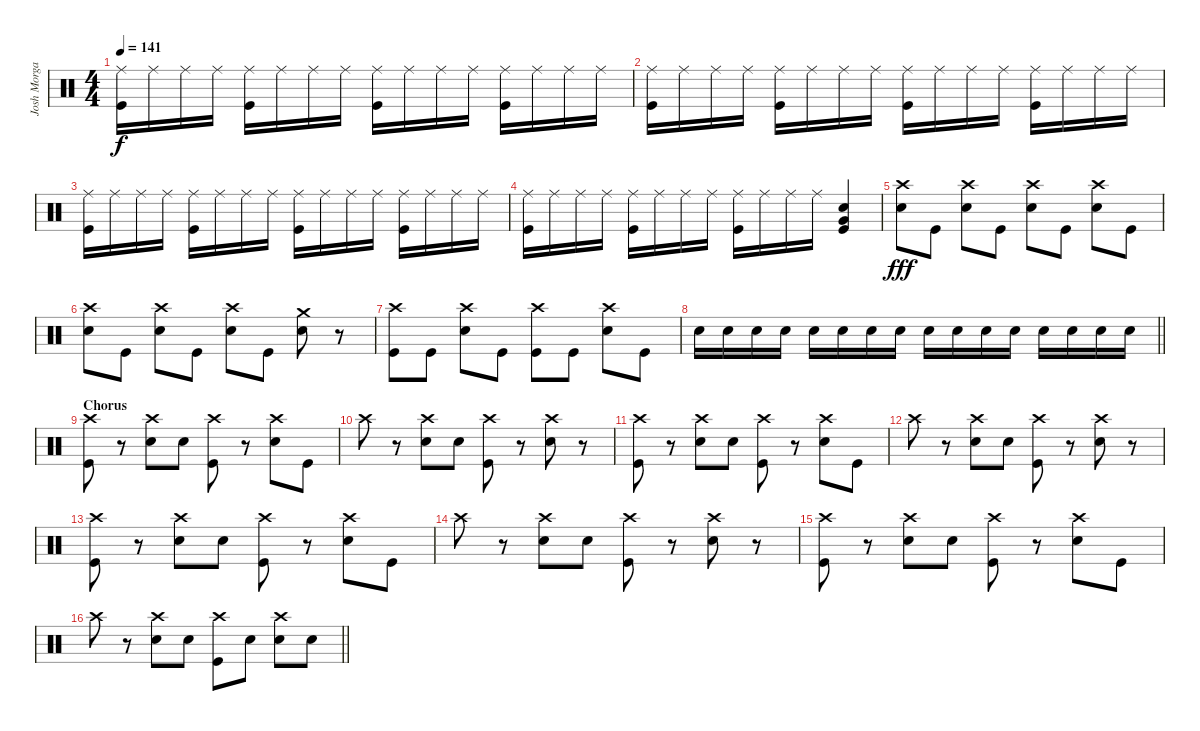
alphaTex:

\track ("Josh Morgan" "Josh Morga") {instrument percussion}
\staff {score}
\articulation defaults
\ts (4 4)
\tempo 141
\clef neutral
\ks c
("Ride (middle)" "Kick (hit)").16{dy f} "Ride (middle)".16 "Ride (middle)".16 "Ride (middle)".16 ("Ride (middle)" "Kick (hit)").16 "Ride (middle)".16 "Ride (middle)".16 "Ride (middle)".16 ("Ride (middle)" "Kick (hit)").16 "Ride (middle)".16 "Ride (middle)".16 "Ride (middle)".16 ("Ride (middle)" "Kick (hit)").16 "Ride (middle)".16 "Ride (middle)".16 "Ride (middle)".16 |
("Ride (middle)" "Kick (hit)").16 "Ride (middle)".16 "Ride (middle)".16 "Ride (middle)".16 ("Ride (middle)" "Kick (hit)").16 "Ride (middle)".16 "Ride (middle)".16 "Ride (middle)".16 ("Ride (middle)" "Kick (hit)").16 "Ride (middle)".16 "Ride (middle)".16 "Ride (middle)".16 ("Ride (middle)" "Kick (hit)").16 "Ride (middle)".16 "Ride (middle)".16 "Ride (middle)".16 |
("Ride (middle)" "Kick (hit)").16 "Ride (middle)".16 "Ride (middle)".16 "Ride (middle)".16 ("Ride (middle)" "Kick (hit)").16 "Ride (middle)".16 "Ride (middle)".16 "Ride (middle)".16 ("Ride (middle)" "Kick (hit)").16 "Ride (middle)".16 "Ride (middle)".16 "Ride (middle)".16 ("Ride (middle)" "Kick (hit)").16 "Ride (middle)".16 "Ride (middle)".16 "Ride (middle)".16 |
("Ride (middle)" "Kick (hit)").16 "Ride (middle)".16 "Ride (middle)".16 "Ride (middle)".16 ("Ride (middle)" "Kick (hit)").16 "Ride (middle)".16 "Ride (middle)".16 "Ride (middle)".16 ("Ride (middle)" "Kick (hit)").16 "Ride (middle)".16 "Ride (middle)".16 "Ride (middle)".16 ("Electric Snare (hit)" "Very Low Tom (hit)" "Kick (hit)").4 |
("Crash high (hit)" "Electric Snare (hit)").8{dy fff} "Kick (hit)".8 ("Crash high (hit)" "Electric Snare (hit)").8 "Kick (hit)".8 ("Crash high (hit)" "Electric Snare (hit)").8 "Kick (hit)".8 ("Crash high (hit)" "Electric Snare (hit)").8 "Kick (hit)".8 |
("Crash high (hit)" "Electric Snare (hit)").8 "Kick (hit)".8 ("Crash high (hit)" "Electric Snare (hit)").8 "Kick (hit)".8 ("Crash high (hit)" "Electric Snare (hit)").8 "Kick (hit)".8 ("Crash medium (hit)" "Electric Snare (hit)").8 r.8 |
("Crash high (hit)" "Kick (hit)").8 "Kick (hit)".8 ("Crash high (hit)" "Electric Snare (hit)").8 "Kick (hit)".8 ("Crash high (hit)" "Kick (hit)").8 "Kick (hit)".8 ("Crash high (hit)" "Electric Snare (hit)").8 "Kick (hit)".8 |
\barLineRight lightlight "Electric Snare (hit)".16 "Electric Snare (hit)".16 "Electric Snare (hit)".16 "Electric Snare (hit)".16 "Electric Snare (hit)".16 "Electric Snare (hit)".16 "Electric Snare (hit)".16 "Electric Snare (hit)".16 "Electric Snare (hit)".16 "Electric Snare (hit)".16 "Electric Snare (hit)".16 "Electric Snare (hit)".16 "Electric Snare (hit)".16 "Electric Snare (hit)".16 "Electric Snare (hit)".16 "Electric Snare (hit)".16
|
\section ("" "Chorus")
("Crash high (hit)" "Kick (hit)").8 r.8 ("Crash high (hit)" "Electric Snare (hit)").8 "Electric Snare (hit)".8 ("Crash high (hit)" "Kick (hit)").8 r.8 ("Crash high (hit)" "Electric Snare (hit)").8 "Kick (hit)".8 |
"Crash high (hit)".8 r.8 ("Crash high (hit)" "Electric Snare (hit)").8 "Electric Snare (hit)".8 ("Crash high (hit)" "Kick (hit)").8 r.8 ("Crash high (hit)" "Electric Snare (hit)").8 r.8 |
("Crash high (hit)" "Kick (hit)").8 r.8 ("Crash high (hit)" "Electric Snare (hit)").8 "Electric Snare (hit)".8 ("Crash high (hit)" "Kick (hit)").8 r.8 ("Crash high (hit)" "Electric Snare (hit)").8 "Kick (hit)".8 |
"Crash high (hit)".8 r.8 ("Crash high (hit)" "Electric Snare (hit)").8 "Electric Snare (hit)".8 ("Crash high (hit)" "Kick (hit)").8 r.8 ("Crash high (hit)" "Electric Snare (hit)").8 r.8 |
("Crash high (hit)" "Kick (hit)").8 r.8 ("Crash high (hit)" "Electric Snare (hit)").8 "Electric Snare (hit)".8 ("Crash high (hit)" "Kick (hit)").8 r.8 ("Crash high (hit)" "Electric Snare (hit)").8 "Kick (hit)".8 |
"Crash high (hit)".8 r.8 ("Crash high (hit)" "Electric Snare (hit)").8 "Electric Snare (hit)".8 ("Crash high (hit)" "Kick (hit)").8 r.8 ("Crash high (hit)" "Electric Snare (hit)").8 r.8 |
("Crash high (hit)" "Kick (hit)").8 r.8 ("Crash high (hit)" "Electric Snare (hit)").8 "Electric Snare (hit)".8 ("Crash high (hit)" "Kick (hit)").8 r.8 ("Crash high (hit)" "Electric Snare (hit)").8 "Kick (hit)".8 |
\barLineRight lightlight "Crash high (hit)".8
r.8 ("Crash high (hit)" "Electric Snare (hit)").8 "Electric Snare (hit)".8 ("Crash high (hit)" "Kick (hit)").8 "Electric Snare (hit)".8 ("Crash high (hit)" "Electric Snare (hit)").8 "Electric Snare (hit)".8
